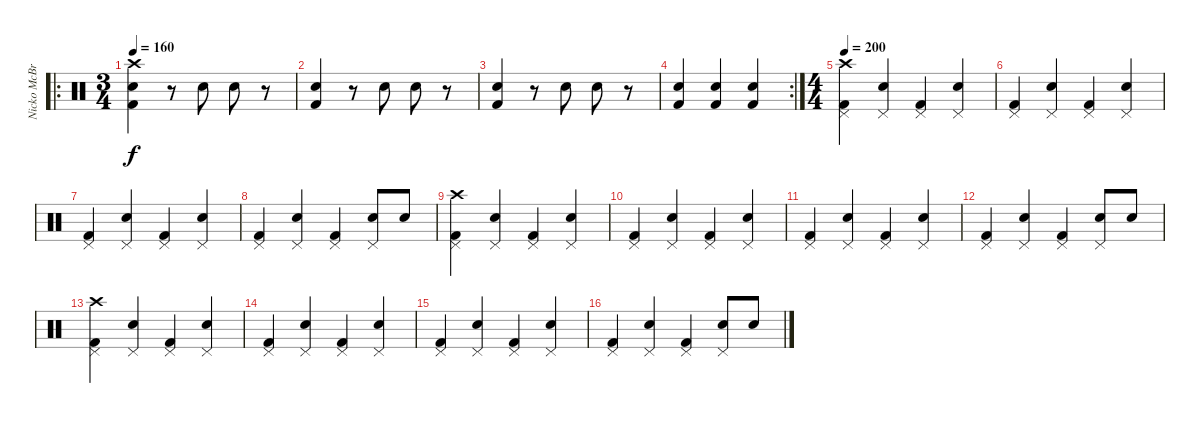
\track ("Nicko McBrain" "Nicko McBr") {instrument percussion}
\staff {score}
\articulation defaults
\ro
\ts (3 4)
\tempo 160
\clef neutral
\ks c
("Crash high (hit)" "Snare (hit) 2" "Kick (hit) 2").4{dy f} r.8 "Snare (hit) 2".8 "Snare (hit) 2".8 r.8 |
("Snare (hit) 2" "Kick (hit) 2").4 r.8 "Snare (hit) 2".8 "Snare (hit) 2".8 r.8 |
("Snare (hit) 2" "Kick (hit) 2").4 r.8 "Snare (hit) 2".8 "Snare (hit) 2".8 r.8 |
\rc 2
("Snare (hit) 2" "Kick (hit) 2").4 ("Snare (hit) 2" "Kick (hit) 2").4 ("Snare (hit) 2" "Kick (hit) 2").4 |
\ts (4 4)
\tempo 200
("Pedal Hi-Hat (hit)" "Kick (hit) 2" "Crash high (hit)").4 ("Pedal Hi-Hat (hit)" "Snare (hit) 2").4 ("Pedal Hi-Hat (hit)" "Kick (hit) 2").4 ("Pedal Hi-Hat (hit)" "Snare (hit) 2").4 |
("Pedal Hi-Hat (hit)" "Kick (hit) 2").4 ("Pedal Hi-Hat (hit)" "Snare (hit) 2").4 ("Pedal Hi-Hat (hit)" "Kick (hit) 2").4 ("Pedal Hi-Hat (hit)" "Snare (hit) 2").4 |
("Pedal Hi-Hat (hit)" "Kick (hit) 2").4 ("Pedal Hi-Hat (hit)" "Snare (hit) 2").4 ("Pedal Hi-Hat (hit)" "Kick (hit) 2").4 ("Pedal Hi-Hat (hit)" "Snare (hit) 2").4 |
("Pedal Hi-Hat (hit)" "Kick (hit) 2").4 ("Pedal Hi-Hat (hit)" "Snare (hit) 2").4 ("Pedal Hi-Hat (hit)" "Kick (hit) 2").4 ("Pedal Hi-Hat (hit)" "Snare (hit) 2").8 "Snare (hit) 2".8 |
("Pedal Hi-Hat (hit)" "Kick (hit) 2" "Crash high (hit)").4 ("Pedal Hi-Hat (hit)" "Snare (hit) 2").4 ("Pedal Hi-Hat (hit)" "Kick (hit) 2").4 ("Pedal Hi-Hat (hit)" "Snare (hit) 2").4 |
("Pedal Hi-Hat (hit)" "Kick (hit) 2").4 ("Pedal Hi-Hat (hit)" "Snare (hit) 2").4 ("Pedal Hi-Hat (hit)" "Kick (hit) 2").4 ("Pedal Hi-Hat (hit)" "Snare (hit) 2").4 |
("Pedal Hi-Hat (hit)" "Kick (hit) 2").4 ("Pedal Hi-Hat (hit)" "Snare (hit) 2").4 ("Pedal Hi-Hat (hit)" "Kick (hit) 2").4 ("Pedal Hi-Hat (hit)" "Snare (hit) 2").4 |
("Pedal Hi-Hat (hit)" "Kick (hit) 2").4 ("Pedal Hi-Hat (hit)" "Snare (hit) 2").4 ("Pedal Hi-Hat (hit)" "Kick (hit) 2").4 ("Pedal Hi-Hat (hit)" "Snare (hit) 2").8 "Snare (hit) 2".8 |
("Pedal Hi-Hat (hit)" "Kick (hit) 2" "Crash high (hit)").4 ("Pedal Hi-Hat (hit)" "Snare (hit) 2").4 ("Pedal Hi-Hat (hit)" "Kick (hit) 2").4 ("Pedal Hi-Hat (hit)" "Snare (hit) 2").4 |
("Pedal Hi-Hat (hit)" "Kick (hit) 2").4 ("Pedal Hi-Hat (hit)" "Snare (hit) 2").4 ("Pedal Hi-Hat (hit)" "Kick (hit) 2").4 ("Pedal Hi-Hat (hit)" "Snare (hit) 2").4 |
("Pedal Hi-Hat (hit)" "Kick (hit) 2").4 ("Pedal Hi-Hat (hit)" "Snare (hit) 2").4 ("Pedal Hi-Hat (hit)" "Kick (hit) 2").4 ("Pedal Hi-Hat (hit)" "Snare (hit) 2").4 |
("Pedal Hi-Hat (hit)" "Kick (hit) 2").4 ("Pedal Hi-Hat (hit)" "Snare (hit) 2").4 ("Pedal Hi-Hat (hit)" "Kick (hit) 2").4 ("Pedal Hi-Hat (hit)" "Snare (hit) 2").8 "Snare (hit) 2".8
